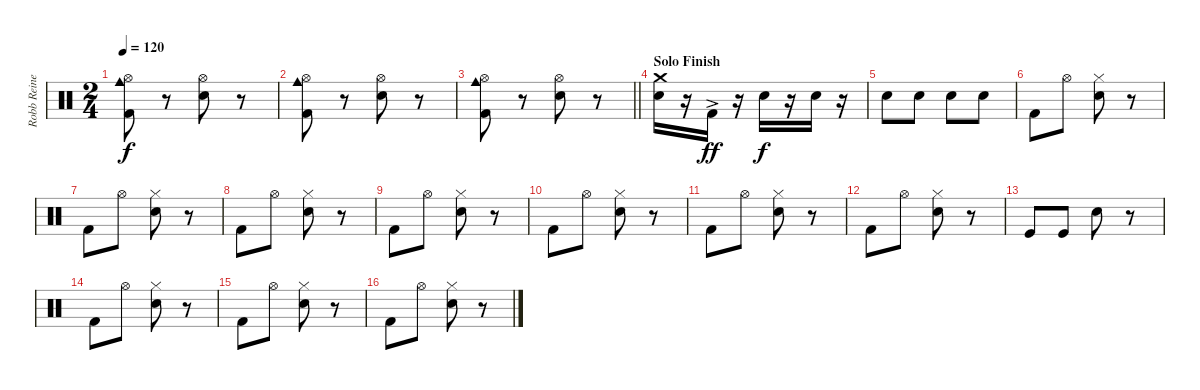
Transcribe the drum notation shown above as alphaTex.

\track ("Robb Reiner" "Robb Reine") {instrument percussion}
\staff {score}
\articulation defaults
\ts (2 4)
\tempo 120
\clef neutral
\ks c
("Cowbell medium (hit)" "Hi-Hat (open)" "Kick (hit) 2").8{dy f} r.8 ("Hi-Hat (open)" "Snare (hit) 2").8 r.8 |
("Cowbell medium (hit)" "Hi-Hat (open)" "Kick (hit) 2").8 r.8 ("Hi-Hat (open)" "Snare (hit) 2").8 r.8 |
\barLineRight lightlight
("Cowbell medium (hit)" "Hi-Hat (open)" "Kick (hit) 2").8 r.8 ("Hi-Hat (open)" "Snare (hit) 2").8 r.8 |
\section ("" "Solo Finish")
("Crash medium (hit)" "Snare (hit) 2").16 r.16 "Kick (hit) 2"{ac}.16{dy ff} r.16 "Snare (hit) 2".16{dy f} r.16 "Snare (hit) 2".16 r.16 |
"Snare (hit) 2".8 "Snare (hit) 2".8 "Snare (hit) 2".8 "Snare (hit) 2".8 |
"Kick (hit) 2".8 "Hi-Hat (open)".8 ("Hi-Hat (closed)" "Snare (hit) 2").8 r.8 |
"Kick (hit) 2".8 "Hi-Hat (open)".8 ("Hi-Hat (closed)" "Snare (hit) 2").8 r.8 |
"Kick (hit) 2".8 "Hi-Hat (open)".8 ("Hi-Hat (closed)" "Snare (hit) 2").8 r.8 |
"Kick (hit) 2".8 "Hi-Hat (open)".8 ("Hi-Hat (closed)" "Snare (hit) 2").8 r.8 |
"Kick (hit) 2".8 "Hi-Hat (open)".8 ("Hi-Hat (closed)" "Snare (hit) 2").8 r.8 |
"Kick (hit) 2".8 "Hi-Hat (open)".8 ("Hi-Hat (closed)" "Snare (hit) 2").8 r.8 |
"Kick (hit) 2".8 "Hi-Hat (open)".8 ("Hi-Hat (closed)" "Snare (hit) 2").8 r.8 |
"Kick (hit)".8 "Kick (hit)".8 "Snare (hit) 2".8 r.8 |
"Kick (hit) 2".8 "Hi-Hat (open)".8 ("Hi-Hat (closed)" "Snare (hit) 2").8 r.8 |
"Kick (hit) 2".8 "Hi-Hat (open)".8 ("Hi-Hat (closed)" "Snare (hit) 2").8 r.8 |
"Kick (hit) 2".8 "Hi-Hat (open)".8 ("Hi-Hat (closed)" "Snare (hit) 2").8 r.8
